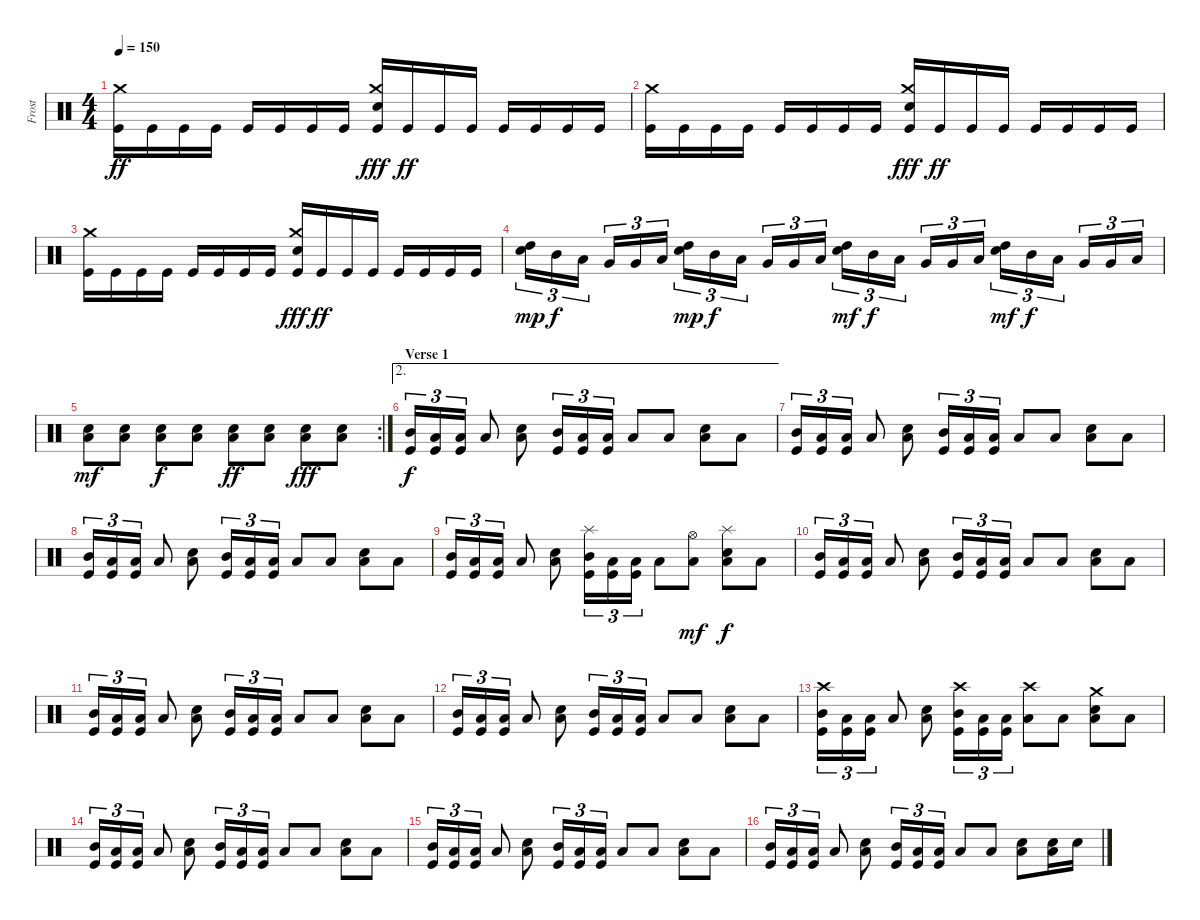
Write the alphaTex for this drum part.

\track ("Frost" "Frost") {instrument percussion}
\staff {score}
\articulation defaults
\ts (4 4)
\tempo 150
\clef neutral
\ks c
("Kick (hit)" "Crash medium (hit)").16{dy ff} "Kick (hit)".16 "Kick (hit)".16 "Kick (hit)".16 "Kick (hit)".16 "Kick (hit)".16 "Kick (hit)".16 "Kick (hit)".16 ("Kick (hit)" "Electric Snare (hit)" "Crash medium (hit)").16{dy fff} "Kick (hit)".16{dy ff} "Kick (hit)".16 "Kick (hit)".16 "Kick (hit)".16 "Kick (hit)".16 "Kick (hit)".16 "Kick (hit)".16 |
("Kick (hit)" "Crash medium (hit)").16 "Kick (hit)".16 "Kick (hit)".16 "Kick (hit)".16 "Kick (hit)".16 "Kick (hit)".16 "Kick (hit)".16 "Kick (hit)".16 ("Kick (hit)" "Electric Snare (hit)" "Crash medium (hit)").16{dy fff} "Kick (hit)".16{dy ff} "Kick (hit)".16 "Kick (hit)".16 "Kick (hit)".16 "Kick (hit)".16 "Kick (hit)".16 "Kick (hit)".16 |
("Kick (hit)" "Crash medium (hit)").16 "Kick (hit)".16 "Kick (hit)".16 "Kick (hit)".16 "Kick (hit)".16 "Kick (hit)".16 "Kick (hit)".16 "Kick (hit)".16 ("Kick (hit)" "Electric Snare (hit)" "Crash medium (hit)").16{dy fff} "Kick (hit)".16{dy ff} "Kick (hit)".16 "Kick (hit)".16 "Kick (hit)".16 "Kick (hit)".16 "Kick (hit)".16 "Kick (hit)".16 |
("High Tom (hit)" "Electric Snare (hit)").16{tu (3 2) dy mp} "Mid Tom (hit)".16{tu (3 2) dy f} "Low Tom (hit)".16{tu (3 2)} "Very Low Tom (hit)".16{tu (3 2)} "Very Low Tom (hit)".16{tu (3 2)} "Low Floor Tom (hit)".16{tu (3 2)} ("High Tom (hit)" "Electric Snare (hit)").16{tu (3 2) dy mp} "Mid Tom (hit)".16{tu (3 2) dy f} "Low Tom (hit)".16{tu (3 2)} "Very Low Tom (hit)".16{tu (3 2)} "Very Low Tom (hit)".16{tu (3 2)} "Low Floor Tom (hit)".16{tu (3 2)} ("High Tom (hit)" "Electric Snare (hit)").16{tu (3 2) dy mf} "Mid Tom (hit)".16{tu (3 2) dy f} "Low Tom (hit)".16{tu (3 2)} "Very Low Tom (hit)".16{tu (3 2)} "Very Low Tom (hit)".16{tu (3 2)} "Low Floor Tom (hit)".16{tu (3 2)} ("High Tom (hit)" "Electric Snare (hit)").16{tu (3 2) dy mf} "Mid Tom (hit)".16{tu (3 2) dy f} "Low Tom (hit)".16{tu (3 2)} "Very Low Tom (hit)".16{tu (3 2)} "Very Low Tom (hit)".16{tu (3 2)} "Low Floor Tom (hit)".16{tu (3 2)} |
\rc 2
("Low Floor Tom (hit)" "Electric Snare (hit)").8{dy mf} ("Low Floor Tom (hit)" "Electric Snare (hit)").8 ("Low Floor Tom (hit)" "Electric Snare (hit)").8{dy f} ("Low Floor Tom (hit)" "Electric Snare (hit)").8 ("Low Floor Tom (hit)" "Electric Snare (hit)").8{dy ff} ("Low Floor Tom (hit)" "Electric Snare (hit)").8 ("Low Floor Tom (hit)" "Electric Snare (hit)").8{dy fff} ("Low Floor Tom (hit)" "Electric Snare (hit)").8 |
\ae 2
\section ("" "Verse 1")
("Mid Tom (hit)" "Kick (hit)").16{tu (3 2) dy f} ("Low Tom (hit)" "Kick (hit)").16{tu (3 2)} ("Low Tom (hit)" "Kick (hit)").16{tu (3 2)} "Low Floor Tom (hit)".8 ("Low Floor Tom (hit)" "Electric Snare (hit)").8 ("Mid Tom (hit)" "Kick (hit)").16{tu (3 2)} ("Low Tom (hit)" "Kick (hit)").16{tu (3 2)} ("Low Tom (hit)" "Kick (hit)").16{tu (3 2)} "Low Floor Tom (hit)".8 "Low Floor Tom (hit)".8 ("Low Floor Tom (hit)" "Electric Snare (hit)").8 "Low Floor Tom (hit)".8 |
("Mid Tom (hit)" "Kick (hit)").16{tu (3 2)} ("Low Tom (hit)" "Kick (hit)").16{tu (3 2)} ("Low Tom (hit)" "Kick (hit)").16{tu (3 2)} "Low Floor Tom (hit)".8 ("Low Floor Tom (hit)" "Electric Snare (hit)").8 ("Mid Tom (hit)" "Kick (hit)").16{tu (3 2)} ("Low Tom (hit)" "Kick (hit)").16{tu (3 2)} ("Low Tom (hit)" "Kick (hit)").16{tu (3 2)} "Low Floor Tom (hit)".8 "Low Floor Tom (hit)".8 ("Low Floor Tom (hit)" "Electric Snare (hit)").8 "Low Floor Tom (hit)".8 |
("Mid Tom (hit)" "Kick (hit)").16{tu (3 2)} ("Low Tom (hit)" "Kick (hit)").16{tu (3 2)} ("Low Tom (hit)" "Kick (hit)").16{tu (3 2)} "Low Floor Tom (hit)".8 ("Low Floor Tom (hit)" "Electric Snare (hit)").8 ("Mid Tom (hit)" "Kick (hit)").16{tu (3 2)} ("Low Tom (hit)" "Kick (hit)").16{tu (3 2)} ("Low Tom (hit)" "Kick (hit)").16{tu (3 2)} "Low Floor Tom (hit)".8 "Low Floor Tom (hit)".8 ("Low Floor Tom (hit)" "Electric Snare (hit)").8 "Low Floor Tom (hit)".8 |
("Mid Tom (hit)" "Kick (hit)").16{tu (3 2)} ("Low Tom (hit)" "Kick (hit)").16{tu (3 2)} ("Low Tom (hit)" "Kick (hit)").16{tu (3 2)} "Low Floor Tom (hit)".8 ("Low Floor Tom (hit)" "Electric Snare (hit)").8 ("Mid Tom (hit)" "Kick (hit)" "Splash (hit)").16{tu (3 2)} ("Low Tom (hit)" "Kick (hit)").16{tu (3 2)} ("Low Tom (hit)" "Kick (hit)").16{tu (3 2)} "Low Floor Tom (hit)".8 ("Low Floor Tom (hit)" "Hi-Hat (open)").8{dy mf} ("Low Floor Tom (hit)" "Splash (hit)" "Electric Snare (hit)").8{dy f} "Low Floor Tom (hit)".8 |
("Mid Tom (hit)" "Kick (hit)").16{tu (3 2)} ("Low Tom (hit)" "Kick (hit)").16{tu (3 2)} ("Low Tom (hit)" "Kick (hit)").16{tu (3 2)} "Low Floor Tom (hit)".8 ("Low Floor Tom (hit)" "Electric Snare (hit)").8 ("Mid Tom (hit)" "Kick (hit)").16{tu (3 2)} ("Low Tom (hit)" "Kick (hit)").16{tu (3 2)} ("Low Tom (hit)" "Kick (hit)").16{tu (3 2)} "Low Floor Tom (hit)".8 "Low Floor Tom (hit)".8 ("Low Floor Tom (hit)" "Electric Snare (hit)").8 "Low Floor Tom (hit)".8 |
("Mid Tom (hit)" "Kick (hit)").16{tu (3 2)} ("Low Tom (hit)" "Kick (hit)").16{tu (3 2)} ("Low Tom (hit)" "Kick (hit)").16{tu (3 2)} "Low Floor Tom (hit)".8 ("Low Floor Tom (hit)" "Electric Snare (hit)").8 ("Mid Tom (hit)" "Kick (hit)").16{tu (3 2)} ("Low Tom (hit)" "Kick (hit)").16{tu (3 2)} ("Low Tom (hit)" "Kick (hit)").16{tu (3 2)} "Low Floor Tom (hit)".8 "Low Floor Tom (hit)".8 ("Low Floor Tom (hit)" "Electric Snare (hit)").8 "Low Floor Tom (hit)".8 |
("Mid Tom (hit)" "Kick (hit)").16{tu (3 2)} ("Low Tom (hit)" "Kick (hit)").16{tu (3 2)} ("Low Tom (hit)" "Kick (hit)").16{tu (3 2)} "Low Floor Tom (hit)".8 ("Low Floor Tom (hit)" "Electric Snare (hit)").8 ("Mid Tom (hit)" "Kick (hit)").16{tu (3 2)} ("Low Tom (hit)" "Kick (hit)").16{tu (3 2)} ("Low Tom (hit)" "Kick (hit)").16{tu (3 2)} "Low Floor Tom (hit)".8 "Low Floor Tom (hit)".8 ("Low Floor Tom (hit)" "Electric Snare (hit)").8 "Low Floor Tom (hit)".8 |
("Mid Tom (hit)" "Kick (hit)" "Crash high (hit)").16{tu (3 2)} ("Low Tom (hit)" "Kick (hit)").16{tu (3 2)} ("Low Tom (hit)" "Kick (hit)").16{tu (3 2)} "Low Floor Tom (hit)".8 ("Low Floor Tom (hit)" "Electric Snare (hit)").8 ("Mid Tom (hit)" "Kick (hit)" "Crash high (hit)").16{tu (3 2)} ("Low Tom (hit)" "Kick (hit)").16{tu (3 2)} ("Low Tom (hit)" "Kick (hit)").16{tu (3 2)} ("Low Floor Tom (hit)" "Crash high (hit)").8 "Low Floor Tom (hit)".8 ("Low Floor Tom (hit)" "Crash medium (hit)" "Electric Snare (hit)").8 "Low Floor Tom (hit)".8 |
("Mid Tom (hit)" "Kick (hit)").16{tu (3 2)} ("Low Tom (hit)" "Kick (hit)").16{tu (3 2)} ("Low Tom (hit)" "Kick (hit)").16{tu (3 2)} "Low Floor Tom (hit)".8 ("Low Floor Tom (hit)" "Electric Snare (hit)").8 ("Mid Tom (hit)" "Kick (hit)").16{tu (3 2)} ("Low Tom (hit)" "Kick (hit)").16{tu (3 2)} ("Low Tom (hit)" "Kick (hit)").16{tu (3 2)} "Low Floor Tom (hit)".8 "Low Floor Tom (hit)".8 ("Low Floor Tom (hit)" "Electric Snare (hit)").8 "Low Floor Tom (hit)".8 |
("Mid Tom (hit)" "Kick (hit)").16{tu (3 2)} ("Low Tom (hit)" "Kick (hit)").16{tu (3 2)} ("Low Tom (hit)" "Kick (hit)").16{tu (3 2)} "Low Floor Tom (hit)".8 ("Low Floor Tom (hit)" "Electric Snare (hit)").8 ("Mid Tom (hit)" "Kick (hit)").16{tu (3 2)} ("Low Tom (hit)" "Kick (hit)").16{tu (3 2)} ("Low Tom (hit)" "Kick (hit)").16{tu (3 2)} "Low Floor Tom (hit)".8 "Low Floor Tom (hit)".8 ("Low Floor Tom (hit)" "Electric Snare (hit)").8 "Low Floor Tom (hit)".8 |
("Mid Tom (hit)" "Kick (hit)").16{tu (3 2)} ("Low Tom (hit)" "Kick (hit)").16{tu (3 2)} ("Low Tom (hit)" "Kick (hit)").16{tu (3 2)} "Low Floor Tom (hit)".8 ("Low Floor Tom (hit)" "Electric Snare (hit)").8 ("Mid Tom (hit)" "Kick (hit)").16{tu (3 2)} ("Low Tom (hit)" "Kick (hit)").16{tu (3 2)} ("Low Tom (hit)" "Kick (hit)").16{tu (3 2)} "Low Floor Tom (hit)".8 "Low Floor Tom (hit)".8 ("Low Floor Tom (hit)" "Electric Snare (hit)").8 ("Low Floor Tom (hit)" "Electric Snare (hit)").16 "Electric Snare (hit)".16
